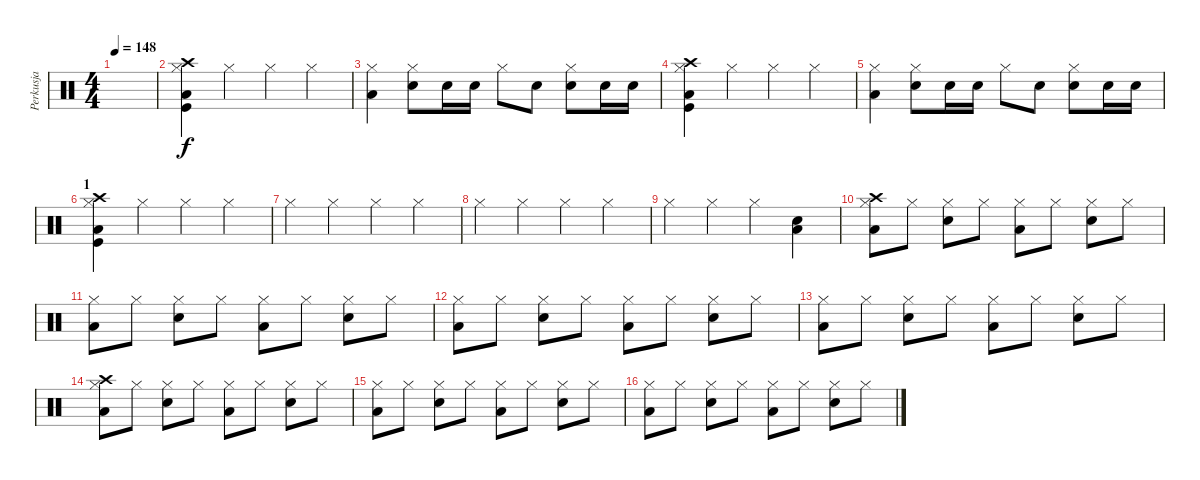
\track ("Perkusja" "Perkusja") {instrument percussion}
\staff {score}
\articulation defaults
\ts (4 4)
\tempo 148
\clef neutral
\ks c
|
("Crash high (hit)" "Low Tom (hit)" "Kick (hit)" "Hi-Hat (closed)").4 "Hi-Hat (closed)".4 "Hi-Hat (closed)".4 "Hi-Hat (closed)".4 |
("Low Tom (hit)" "Hi-Hat (closed)").4 ("Electric Snare (hit)" "Hi-Hat (closed)").8 "Electric Snare (hit)".16 "Electric Snare (hit)".16 "Hi-Hat (closed)".8 "Electric Snare (hit)".8 ("Electric Snare (hit)" "Hi-Hat (closed)").8 "Electric Snare (hit)".16 "Electric Snare (hit)".16 |
("Crash high (hit)" "Low Tom (hit)" "Kick (hit)" "Hi-Hat (closed)").4 "Hi-Hat (closed)".4 "Hi-Hat (closed)".4 "Hi-Hat (closed)".4 |
("Low Tom (hit)" "Hi-Hat (closed)").4 ("Electric Snare (hit)" "Hi-Hat (closed)").8 "Electric Snare (hit)".16 "Electric Snare (hit)".16 "Hi-Hat (closed)".8 "Electric Snare (hit)".8 ("Electric Snare (hit)" "Hi-Hat (closed)").8 "Electric Snare (hit)".16 "Electric Snare (hit)".16 |
\section ("" "1")
("Crash high (hit)" "Low Tom (hit)" "Kick (hit)" "Hi-Hat (closed)").4 "Hi-Hat (closed)".4 "Hi-Hat (closed)".4 "Hi-Hat (closed)".4 |
"Hi-Hat (closed)".4 "Hi-Hat (closed)".4 "Hi-Hat (closed)".4 "Hi-Hat (closed)".4 |
"Hi-Hat (closed)".4 "Hi-Hat (closed)".4 "Hi-Hat (closed)".4 "Hi-Hat (closed)".4 |
"Hi-Hat (closed)".4 "Hi-Hat (closed)".4 "Hi-Hat (closed)".4 ("Electric Snare (hit)" "Low Tom (hit)").4 |
("Crash high (hit)" "Low Tom (hit)" "Hi-Hat (closed)").8 "Hi-Hat (closed)".8 ("Electric Snare (hit)" "Hi-Hat (closed)").8 "Hi-Hat (closed)".8 ("Low Tom (hit)" "Hi-Hat (closed)").8 "Hi-Hat (closed)".8 ("Electric Snare (hit)" "Hi-Hat (closed)").8 "Hi-Hat (closed)".8 |
("Low Tom (hit)" "Hi-Hat (closed)").8 "Hi-Hat (closed)".8 ("Electric Snare (hit)" "Hi-Hat (closed)").8 "Hi-Hat (closed)".8 ("Low Tom (hit)" "Hi-Hat (closed)").8 "Hi-Hat (closed)".8 ("Electric Snare (hit)" "Hi-Hat (closed)").8 "Hi-Hat (closed)".8 |
("Low Tom (hit)" "Hi-Hat (closed)").8 "Hi-Hat (closed)".8 ("Electric Snare (hit)" "Hi-Hat (closed)").8 "Hi-Hat (closed)".8 ("Low Tom (hit)" "Hi-Hat (closed)").8 "Hi-Hat (closed)".8 ("Electric Snare (hit)" "Hi-Hat (closed)").8 "Hi-Hat (closed)".8 |
("Low Tom (hit)" "Hi-Hat (closed)").8 "Hi-Hat (closed)".8 ("Electric Snare (hit)" "Hi-Hat (closed)").8 "Hi-Hat (closed)".8 ("Low Tom (hit)" "Hi-Hat (closed)").8 "Hi-Hat (closed)".8 ("Electric Snare (hit)" "Hi-Hat (closed)").8 "Hi-Hat (closed)".8 |
("Crash high (hit)" "Low Tom (hit)" "Hi-Hat (closed)").8 "Hi-Hat (closed)".8 ("Electric Snare (hit)" "Hi-Hat (closed)").8 "Hi-Hat (closed)".8 ("Low Tom (hit)" "Hi-Hat (closed)").8 "Hi-Hat (closed)".8 ("Electric Snare (hit)" "Hi-Hat (closed)").8 "Hi-Hat (closed)".8 |
("Low Tom (hit)" "Hi-Hat (closed)").8 "Hi-Hat (closed)".8 ("Electric Snare (hit)" "Hi-Hat (closed)").8 "Hi-Hat (closed)".8 ("Low Tom (hit)" "Hi-Hat (closed)").8 "Hi-Hat (closed)".8 ("Electric Snare (hit)" "Hi-Hat (closed)").8 "Hi-Hat (closed)".8 |
("Low Tom (hit)" "Hi-Hat (closed)").8 "Hi-Hat (closed)".8 ("Electric Snare (hit)" "Hi-Hat (closed)").8 "Hi-Hat (closed)".8 ("Low Tom (hit)" "Hi-Hat (closed)").8 "Hi-Hat (closed)".8 ("Electric Snare (hit)" "Hi-Hat (closed)").8 "Hi-Hat (closed)".8
